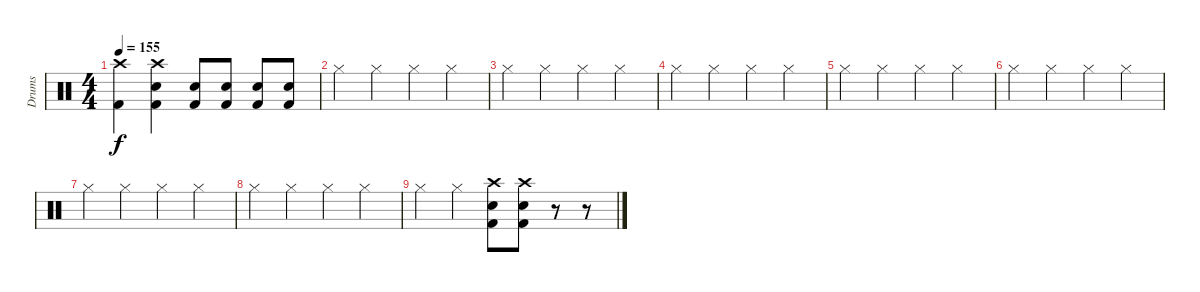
\track ("Drums" "Drums") {instrument percussion}
\staff {score}
\articulation defaults
\ts (4 4)
\tempo 155
\clef neutral
\ks c
("Crash high (hit)" "Kick (hit) 2").4{dy f} ("Crash high (hit)" "Snare (hit) 2" "Kick (hit) 2").4 ("Snare (hit) 2" "Kick (hit) 2").8 ("Snare (hit) 2" "Kick (hit) 2").8 ("Snare (hit) 2" "Kick (hit) 2").8 ("Snare (hit) 2" "Kick (hit) 2").8 |
"Hi-Hat (closed)".4 "Hi-Hat (closed)".4 "Hi-Hat (closed)".4 "Hi-Hat (closed)".4 |
"Hi-Hat (closed)".4 "Hi-Hat (closed)".4 "Hi-Hat (closed)".4 "Hi-Hat (closed)".4 |
"Hi-Hat (closed)".4 "Hi-Hat (closed)".4 "Hi-Hat (closed)".4 "Hi-Hat (closed)".4 |
"Hi-Hat (closed)".4 "Hi-Hat (closed)".4 "Hi-Hat (closed)".4 "Hi-Hat (closed)".4 |
"Hi-Hat (closed)".4 "Hi-Hat (closed)".4 "Hi-Hat (closed)".4 "Hi-Hat (closed)".4 |
"Hi-Hat (closed)".4 "Hi-Hat (closed)".4 "Hi-Hat (closed)".4 "Hi-Hat (closed)".4 |
"Hi-Hat (closed)".4 "Hi-Hat (closed)".4 "Hi-Hat (closed)".4 "Hi-Hat (closed)".4 |
"Hi-Hat (closed)".4 "Hi-Hat (closed)".4 ("Crash high (hit)" "Kick (hit) 2" "Snare (hit) 2").8 ("Crash high (hit)" "Kick (hit) 2" "Snare (hit) 2").8 r.8 r.8
